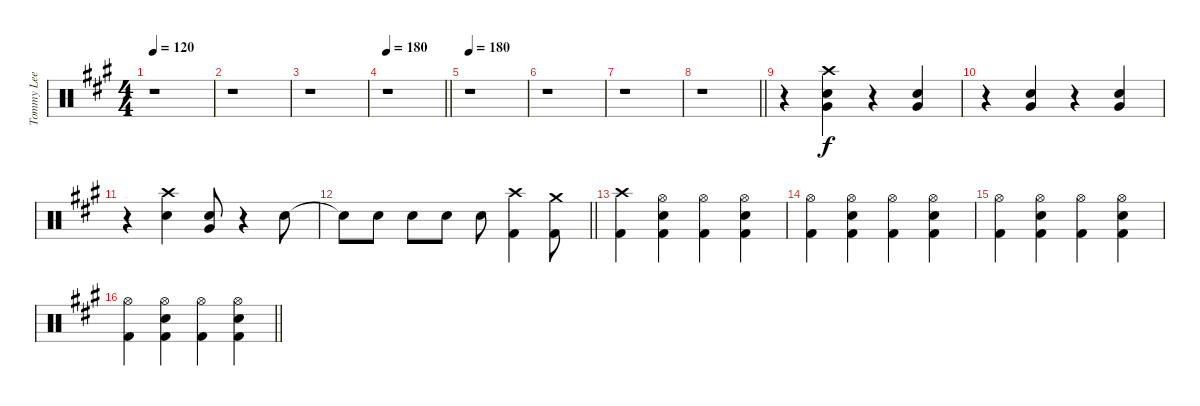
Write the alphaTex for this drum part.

\track ("Tommy Lee" "Tommy Lee") {instrument percussion}
\staff {score}
\articulation defaults
\ts (4 4)
\tempo 120
\clef neutral
\ks a
r.1{dy f} |
r.1 |
r.1 |
\tempo 180
\barLineRight lightlight
r.1 |
\tempo 180
r.1 |
r.1 |
r.1 |
\barLineRight lightlight
r.1 |
r.4 ("Electric Snare (hit)" "Very Low Tom (hit)" "Crash high (hit)").4 r.4 ("Electric Snare (hit)" "Very Low Tom (hit)").4 |
r.4 ("Electric Snare (hit)" "Very Low Tom (hit)").4 r.4 ("Electric Snare (hit)" "Very Low Tom (hit)").4 |
r.4 ("Electric Snare (hit)" "Crash high (hit)").4 ("Electric Snare (hit)" "Very Low Tom (hit)").8 r.4 "Electric Snare (hit)".8 |
\barLineRight lightlight "Electric Snare (hit)"{t}.8 "Electric Snare (hit)".8 "Electric Snare (hit)".8 "Electric Snare (hit)".8 "Electric Snare (hit)".8
("Crash high (hit)" "Kick (hit) 2").4 ("Crash medium (hit)" "Kick (hit) 2").8 |
("Crash high (hit)" "Kick (hit) 2").4 ("Hi-Hat (open)" "Electric Snare (hit)" "Kick (hit) 2").4 ("Hi-Hat (open)" "Kick (hit) 2").4 ("Hi-Hat (open)" "Electric Snare (hit)" "Kick (hit) 2").4 |
("Hi-Hat (open)" "Kick (hit) 2").4 ("Hi-Hat (open)" "Electric Snare (hit)" "Kick (hit) 2").4 ("Hi-Hat (open)" "Kick (hit) 2").4 ("Hi-Hat (open)" "Electric Snare (hit)" "Kick (hit) 2").4 |
("Hi-Hat (open)" "Kick (hit) 2").4 ("Hi-Hat (open)" "Electric Snare (hit)" "Kick (hit) 2").4 ("Hi-Hat (open)" "Kick (hit) 2").4 ("Hi-Hat (open)" "Electric Snare (hit)" "Kick (hit) 2").4 |
\barLineRight lightlight
("Hi-Hat (open)" "Kick (hit) 2").4 ("Hi-Hat (open)" "Electric Snare (hit)" "Kick (hit) 2").4 ("Hi-Hat (open)" "Kick (hit) 2").4 ("Hi-Hat (open)" "Electric Snare (hit)" "Kick (hit) 2").4
